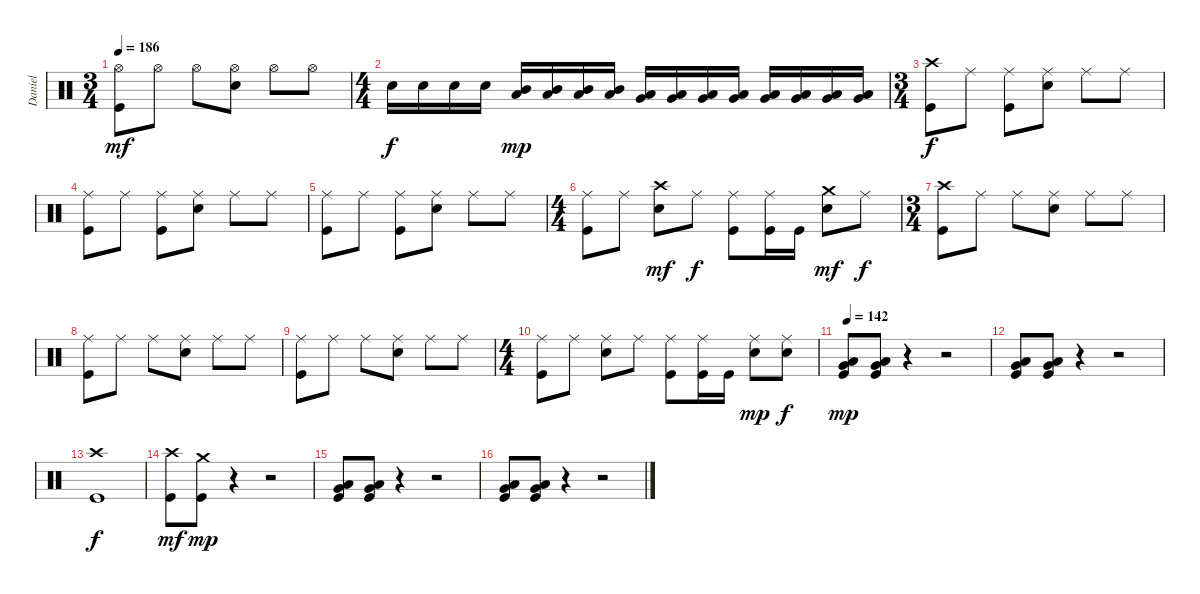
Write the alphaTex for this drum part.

\track ("Daniel" "Daniel") {instrument percussion}
\staff {score}
\articulation defaults
\ts (3 4)
\tempo 186
\clef neutral
\ks c
("Kick (hit)" "Hi-Hat (open)").8{dy mf} "Hi-Hat (open)".8 "Hi-Hat (open)".8 ("Electric Snare (hit)" "Hi-Hat (open)").8 "Hi-Hat (open)".8 "Hi-Hat (open)".8 |
\ts (4 4)
"Electric Snare (hit)".16{dy f} "Electric Snare (hit)".16 "Electric Snare (hit)".16 "Electric Snare (hit)".16 ("Low Tom (hit)" "Mid Tom (hit)").16{dy mp} ("Low Tom (hit)" "Mid Tom (hit)").16 ("Low Tom (hit)" "Mid Tom (hit)").16 ("Low Tom (hit)" "Mid Tom (hit)").16 ("Very Low Tom (hit)" "Low Tom (hit)").16 ("Very Low Tom (hit)" "Low Tom (hit)").16 ("Very Low Tom (hit)" "Low Tom (hit)").16 ("Very Low Tom (hit)" "Low Tom (hit)").16 ("Low Floor Tom (hit)" "Very Low Tom (hit)").16 ("Low Floor Tom (hit)" "Very Low Tom (hit)").16 ("Low Floor Tom (hit)" "Very Low Tom (hit)").16 ("Low Floor Tom (hit)" "Very Low Tom (hit)").16 |
\ts (3 4)
("Kick (hit)" "Crash high (hit)").8{dy f} "Ride (middle)".8 ("Kick (hit)" "Ride (middle)").8 ("Electric Snare (hit)" "Ride (middle)").8 "Ride (middle)".8 "Ride (middle)".8 |
("Kick (hit)" "Ride (middle)").8 "Ride (middle)".8 ("Kick (hit)" "Ride (middle)").8 ("Electric Snare (hit)" "Ride (middle)").8 "Ride (middle)".8 "Ride (middle)".8 |
("Kick (hit)" "Ride (middle)").8 "Ride (middle)".8 ("Kick (hit)" "Ride (middle)").8 ("Electric Snare (hit)" "Ride (middle)").8 "Ride (middle)".8 "Ride (middle)".8 |
\ts (4 4)
("Kick (hit)" "Ride (middle)").8 "Ride (middle)".8 ("Electric Snare (hit)" "Crash high (hit)").8{dy mf} "Ride (middle)".8{dy f} ("Kick (hit)" "Ride (middle)").8 ("Kick (hit)" "Ride (middle)").16 "Kick (hit)".16 ("Electric Snare (hit)" "Crash medium (hit)").8{dy mf} "Ride (middle)".8{dy f} |
\ts (3 4)
("Kick (hit)" "Crash high (hit)").8 "Ride (middle)".8 "Ride (middle)".8 ("Electric Snare (hit)" "Ride (middle)").8 "Ride (middle)".8 "Ride (middle)".8 |
("Kick (hit)" "Ride (middle)").8 "Ride (middle)".8 "Ride (middle)".8 ("Electric Snare (hit)" "Ride (middle)").8 "Ride (middle)".8 "Ride (middle)".8 |
("Kick (hit)" "Ride (middle)").8 "Ride (middle)".8 "Ride (middle)".8 ("Electric Snare (hit)" "Ride (middle)").8 "Ride (middle)".8 "Ride (middle)".8 |
\ts (4 4)
("Kick (hit)" "Ride (middle)").8 "Ride (middle)".8 ("Electric Snare (hit)" "Ride (middle)").8 "Ride (middle)".8 ("Kick (hit)" "Ride (middle)").8 ("Kick (hit)" "Ride (middle)").16 "Kick (hit)".16 ("Electric Snare (hit)" "Ride (middle)").8{dy mp} ("Electric Snare (hit)" "Ride (middle)").8{dy f} |
\tempo 142
("Kick (hit)" "Very Low Tom (hit)" "Low Floor Tom (hit)").8{dy mp} ("Kick (hit)" "Very Low Tom (hit)" "Low Floor Tom (hit)").8 r.4 r.2 |
("Kick (hit)" "Very Low Tom (hit)" "Low Floor Tom (hit)").8 ("Kick (hit)" "Very Low Tom (hit)" "Low Floor Tom (hit)").8 r.4 r.2 |
("Kick (hit)" "Crash high (hit)").1{dy f} |
("Kick (hit)" "Crash high (hit)").8{dy mf} ("Kick (hit)" "Crash medium (hit)").8{dy mp} r.4 r.2 |
("Kick (hit)" "Very Low Tom (hit)" "Low Floor Tom (hit)").8 ("Kick (hit)" "Very Low Tom (hit)" "Low Floor Tom (hit)").8 r.4 r.2 |
("Kick (hit)" "Very Low Tom (hit)" "Low Floor Tom (hit)").8 ("Kick (hit)" "Very Low Tom (hit)" "Low Floor Tom (hit)").8 r.4 r.2
